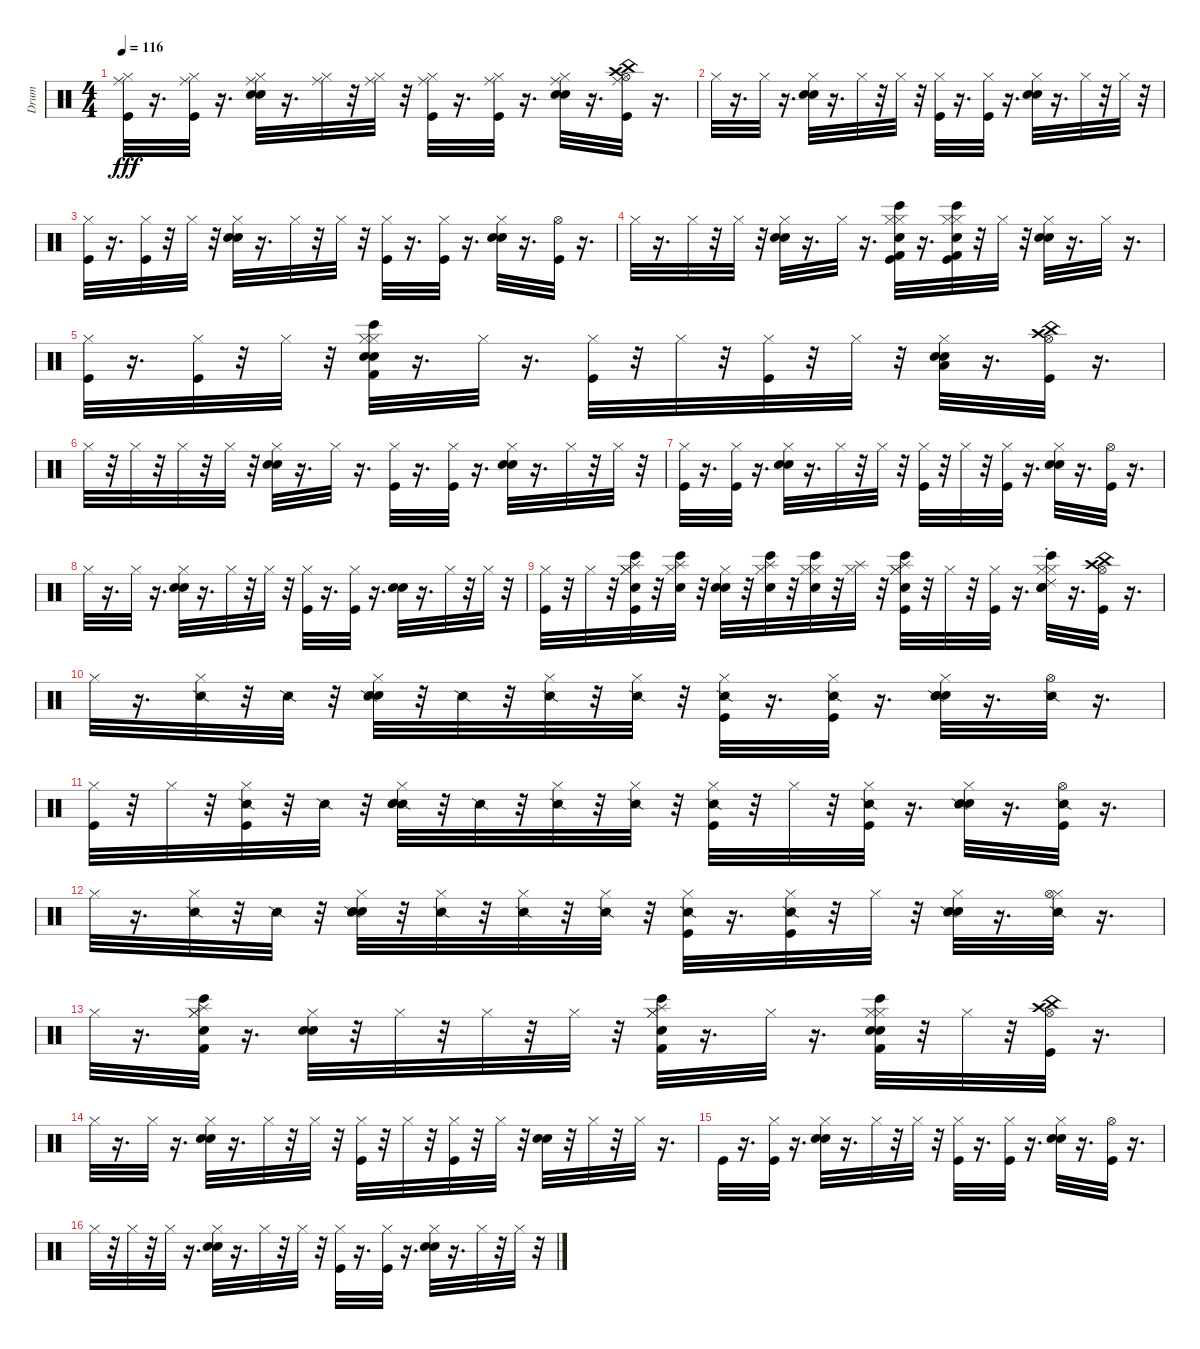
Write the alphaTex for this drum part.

\track ("Drum" "Drum") {instrument percussion}
\staff {score}
\articulation defaults
\ts (4 4)
\tempo 116
\clef neutral
\ks c
("Ride (middle)" "Hi-Hat (closed)" "Kick (hit)").32{dy fff} r.16{d} ("Ride (middle)" "Hi-Hat (closed)" "Kick (hit)").32 r.16{d} ("Ride (middle)" "Hi-Hat (closed)" "Snare (hit) 2" "Electric Snare (hit)").32 r.16{d} ("Ride (middle)" "Hi-Hat (closed)").32 r.32 ("Ride (middle)" "Hi-Hat (closed)").32 r.32 ("Ride (middle)" "Hi-Hat (closed)" "Kick (hit)").32 r.16{d} ("Ride (middle)" "Hi-Hat (closed)" "Kick (hit)").32 r.16{d} ("Ride (middle)" "Hi-Hat (closed)" "Snare (hit) 2" "Electric Snare (hit)").32 r.16{d} ("Ride (middle)" "Hi-Hat (open)" "Crash high (hit)" "China (hit)" "Kick (hit)").32 r.16{d} |
"Hi-Hat (closed)".32 r.16{d} "Hi-Hat (closed)".32 r.16{d} ("Snare (hit) 2" "Electric Snare (hit)" "Hi-Hat (closed)").32 r.16{d} "Hi-Hat (closed)".32 r.32 "Hi-Hat (closed)".32 r.32 ("Hi-Hat (closed)" "Kick (hit)").32 r.16{d} ("Hi-Hat (closed)" "Kick (hit)").32 r.16{d} ("Snare (hit) 2" "Electric Snare (hit)" "Hi-Hat (closed)").32 r.16{d} "Hi-Hat (closed)".32 r.32 "Hi-Hat (closed)".32 r.32 |
("Hi-Hat (closed)" "Kick (hit)").32 r.16{d} ("Hi-Hat (closed)" "Kick (hit)").32 r.32 "Hi-Hat (closed)".32 r.32 ("Hi-Hat (closed)" "Snare (hit) 2" "Electric Snare (hit)").32 r.16{d} "Hi-Hat (closed)".32 r.32 "Hi-Hat (closed)".32 r.32 ("Hi-Hat (closed)" "Kick (hit)").32 r.16{d} ("Kick (hit)" "Hi-Hat (closed)").32 r.16{d} ("Snare (hit) 2" "Electric Snare (hit)" "Hi-Hat (closed)").32 r.16{d} ("Kick (hit)" "Hi-Hat (open)").32 r.16{d} |
"Hi-Hat (closed)".32 r.16{d} "Hi-Hat (closed)".32 r.32 "Hi-Hat (closed)".32 r.32 ("Snare (hit) 2" "Electric Snare (hit)" "Hi-Hat (closed)").32 r.16{d} "Hi-Hat (closed)".32 r.16{d} ("Hi-Hat (closed)" "Bongo High (hit)" "Snare (hit) 2" "Kick (hit) 2" "Hi-Hat (closed)" "Kick (hit)").32 r.16{d} ("Hi-Hat (closed)" "Hi-Hat (closed)" "Kick (hit)" "Bongo High (hit)" "Snare (hit) 2" "Kick (hit) 2").32 r.32 "Hi-Hat (closed)".32 r.32 ("Hi-Hat (closed)" "Snare (hit) 2" "Electric Snare (hit)").32 r.16{d} "Hi-Hat (closed)".32 r.16{d} |
("Hi-Hat (closed)" "Kick (hit)").32 r.16{d} ("Hi-Hat (closed)" "Kick (hit)").32 r.32 "Hi-Hat (closed)".32 r.32 ("Hi-Hat (closed)" "Bongo High (hit)" "Snare (hit) 2" "Kick (hit) 2" "Hi-Hat (closed)" "Snare (hit) 2").32 r.16{d} "Hi-Hat (closed)".32 r.16{d} ("Hi-Hat (closed)" "Kick (hit)").32 r.32 "Hi-Hat (closed)".32 r.32 ("Hi-Hat (closed)" "Kick (hit)").32 r.32 "Hi-Hat (closed)".32 r.32 ("Hi-Hat (closed)" "Snare (hit) 2" "Electric Snare (hit)" "Low Floor Tom (hit)").32 r.16{d} ("Hi-Hat (open)" "Crash high (hit)" "China (hit)" "Kick (hit)").32 r.16{d} |
"Hi-Hat (closed)".32 r.32 "Hi-Hat (closed)".32 r.32 "Hi-Hat (closed)".32 r.32 "Hi-Hat (closed)".32 r.32 ("Snare (hit) 2" "Electric Snare (hit)" "Hi-Hat (closed)").32 r.16{d} "Hi-Hat (closed)".32 r.16{d} ("Kick (hit)" "Hi-Hat (closed)").32 r.16{d} ("Hi-Hat (closed)" "Kick (hit)").32 r.16{d} ("Snare (hit) 2" "Electric Snare (hit)" "Hi-Hat (closed)").32 r.16{d} "Hi-Hat (closed)".32 r.32 "Hi-Hat (closed)".32 r.32 |
("Hi-Hat (closed)" "Kick (hit)").32 r.16{d} ("Hi-Hat (closed)" "Kick (hit)").32 r.16{d} ("Hi-Hat (closed)" "Snare (hit) 2" "Electric Snare (hit)").32 r.16{d} "Hi-Hat (closed)".32 r.32 "Hi-Hat (closed)".32 r.32 ("Hi-Hat (closed)" "Kick (hit)").32 r.32 "Hi-Hat (closed)".32 r.32 ("Kick (hit)" "Hi-Hat (closed)").32 r.16{d} ("Snare (hit) 2" "Electric Snare (hit)" "Hi-Hat (closed)").32 r.16{d} ("Kick (hit)" "Hi-Hat (open)").32 r.16{d} |
"Hi-Hat (closed)".32 r.16{d} "Hi-Hat (closed)".32 r.16{d} ("Snare (hit) 2" "Electric Snare (hit)" "Hi-Hat (closed)").32 r.16{d} "Hi-Hat (closed)".32 r.32 "Hi-Hat (closed)".32 r.32 ("Hi-Hat (closed)" "Kick (hit)").32 r.16{d} ("Hi-Hat (closed)" "Kick (hit)").32 r.16{d} ("Snare (hit) 2" "Electric Snare (hit)").32 r.16{d} "Hi-Hat (closed)".32 r.32 "Hi-Hat (closed)".32 r.32 |
("Hi-Hat (closed)" "Kick (hit)").32 r.32 "Hi-Hat (closed)".32 r.32 ("Hi-Hat (closed)" "Snare (hit) 2" "Bongo High (hit)" "Splash (hit)" "Hi-Hat (closed)" "Kick (hit)").32 r.32 ("Snare (hit) 2" "Hi-Hat (closed)" "Bongo High (hit)" "Splash (hit)").32 r.32 ("Snare (hit) 2" "Electric Snare (hit)" "Hi-Hat (closed)").32 r.32 ("Hi-Hat (closed)" "Bongo High (hit)" "Snare (hit) 2" "Splash (hit)").32 r.32 ("Hi-Hat (closed)" "Snare (hit) 2" "Bongo High (hit)" "Hi-Hat (closed)").32 r.32 ("Hi-Hat (closed)" "Splash (hit)").32 r.32 ("Hi-Hat (closed)" "Bongo High (hit)" "Snare (hit) 2" "Hi-Hat (closed)" "Kick (hit)" "Splash (hit)").32 r.32 "Hi-Hat (closed)".32 r.32 ("Hi-Hat (closed)" "Kick (hit)").32 r.16{d} ("Snare (hit) 2" "Electric Snare (hit)" "Hi-Hat (closed)" "Bongo High (hit)" "Ride (choke) 2" "Hi-Hat (closed)").32 r.16{d} ("Hi-Hat (open)" "Crash high (hit)" "China (hit)" "Kick (hit)").32 r.16{d} |
"Hi-Hat (closed)".32 r.16{d} ("Hi-Hat (closed)" "Snare (side stick) 2").32 r.32 "Snare (side stick) 2".32 r.32 ("Snare (hit) 2" "Electric Snare (hit)" "Hi-Hat (closed)" "Snare (side stick) 2").32 r.32 "Snare (side stick) 2".32 r.32 ("Snare (side stick) 2" "Hi-Hat (closed)").32 r.32 ("Snare (side stick) 2" "Hi-Hat (closed)").32 r.32 ("Snare (side stick) 2" "Hi-Hat (closed)" "Kick (hit)").32 r.16{d} ("Snare (side stick) 2" "Hi-Hat (closed)" "Kick (hit)").32 r.16{d} ("Snare (hit) 2" "Electric Snare (hit)" "Hi-Hat (closed)" "Snare (side stick) 2").32 r.16{d} ("Snare (side stick) 2" "Hi-Hat (open)").32 r.16{d} |
("Hi-Hat (closed)" "Kick (hit)").32 r.32 "Hi-Hat (closed)".32 r.32 ("Hi-Hat (closed)" "Snare (side stick) 2" "Kick (hit)").32 r.32 "Snare (side stick) 2".32 r.32 ("Hi-Hat (closed)" "Snare (side stick) 2" "Snare (hit) 2" "Electric Snare (hit)").32 r.32 "Snare (side stick) 2".32 r.32 ("Snare (side stick) 2" "Hi-Hat (closed)").32 r.32 ("Snare (side stick) 2" "Hi-Hat (closed)").32 r.32 ("Snare (side stick) 2" "Hi-Hat (closed)" "Kick (hit)").32 r.32 "Hi-Hat (closed)".32 r.32 ("Hi-Hat (closed)" "Snare (side stick) 2" "Kick (hit)").32 r.16{d} ("Snare (hit) 2" "Electric Snare (hit)" "Snare (side stick) 2" "Hi-Hat (closed)").32 r.16{d} ("Hi-Hat (open)" "Kick (hit)" "Snare (side stick) 2").32 r.16{d} |
"Hi-Hat (closed)".32 r.16{d} ("Snare (side stick) 2" "Hi-Hat (closed)").32 r.32 "Snare (side stick) 2".32 r.32 ("Snare (hit) 2" "Electric Snare (hit)" "Snare (side stick) 2" "Hi-Hat (closed)").32 r.32 ("Snare (side stick) 2" "Hi-Hat (closed)").32 r.32 ("Snare (side stick) 2" "Hi-Hat (closed)").32 r.32 ("Hi-Hat (closed)" "Snare (side stick) 2").32 r.32 ("Snare (side stick) 2" "Hi-Hat (closed)" "Kick (hit)").32 r.16{d} ("Hi-Hat (closed)" "Kick (hit)" "Snare (side stick) 2").32 r.32 "Hi-Hat (closed)".32 r.32 ("Hi-Hat (closed)" "Snare (hit) 2" "Electric Snare (hit)" "Snare (side stick) 2").32 r.16{d} ("Snare (side stick) 2" "Hi-Hat (closed)" "Hi-Hat (open)").32 r.16{d} |
"Hi-Hat (closed)".32 r.16{d} ("Bongo High (hit)" "Hi-Hat (closed)" "Snare (hit) 2" "Kick (hit) 2" "Hi-Hat (closed)" "Splash (hit)").32 r.16{d} ("Hi-Hat (closed)" "Snare (hit) 2" "Electric Snare (hit)").32 r.32 "Hi-Hat (closed)".32 r.32 "Hi-Hat (closed)".32 r.32 "Hi-Hat (closed)".32 r.32 ("Hi-Hat (closed)" "Bongo High (hit)" "Snare (hit) 2" "Kick (hit) 2" "Hi-Hat (closed)" "Splash (hit)").32 r.16{d} "Hi-Hat (closed)".32 r.16{d} ("Hi-Hat (closed)" "Electric Snare (hit)" "Bongo High (hit)" "Snare (hit) 2" "Kick (hit) 2" "Hi-Hat (closed)").32 r.32 "Hi-Hat (closed)".32 r.32 ("Crash high (hit)" "China (hit)" "Hi-Hat (open)" "Kick (hit)").32 r.16{d} |
"Hi-Hat (closed)".32 r.16{d} "Hi-Hat (closed)".32 r.16{d} ("Snare (hit) 2" "Electric Snare (hit)" "Hi-Hat (closed)").32 r.16{d} "Hi-Hat (closed)".32 r.32 "Hi-Hat (closed)".32 r.32 ("Hi-Hat (closed)" "Kick (hit)").32 r.32 "Hi-Hat (closed)".32 r.32 ("Kick (hit)" "Hi-Hat (closed)").32 r.32 "Hi-Hat (closed)".32 r.32 ("Snare (hit) 2" "Electric Snare (hit)").32 r.32 "Hi-Hat (closed)".32 r.32 "Hi-Hat (closed)".32 r.16{d} |
"Kick (hit)".32 r.16{d} ("Hi-Hat (closed)" "Kick (hit)").32 r.16{d} ("Hi-Hat (closed)" "Snare (hit) 2" "Electric Snare (hit)").32 r.16{d} "Hi-Hat (closed)".32 r.32 "Hi-Hat (closed)".32 r.32 ("Hi-Hat (closed)" "Kick (hit)").32 r.16{d} ("Hi-Hat (closed)" "Kick (hit)").32 r.16{d} ("Snare (hit) 2" "Electric Snare (hit)" "Hi-Hat (closed)").32 r.16{d} ("Hi-Hat (open)" "Kick (hit)").32 r.16{d} |
"Hi-Hat (closed)".32 r.32 "Hi-Hat (closed)".32 r.32 "Hi-Hat (closed)".32 r.16{d} ("Snare (hit) 2" "Electric Snare (hit)" "Hi-Hat (closed)").32 r.16{d} "Hi-Hat (closed)".32 r.32 "Hi-Hat (closed)".32 r.32 ("Hi-Hat (closed)" "Kick (hit)").32 r.16{d} ("Hi-Hat (closed)" "Kick (hit)").32 r.16{d} ("Snare (hit) 2" "Electric Snare (hit)" "Hi-Hat (closed)").32 r.16{d} "Hi-Hat (closed)".32 r.32 "Hi-Hat (closed)".32 r.32
